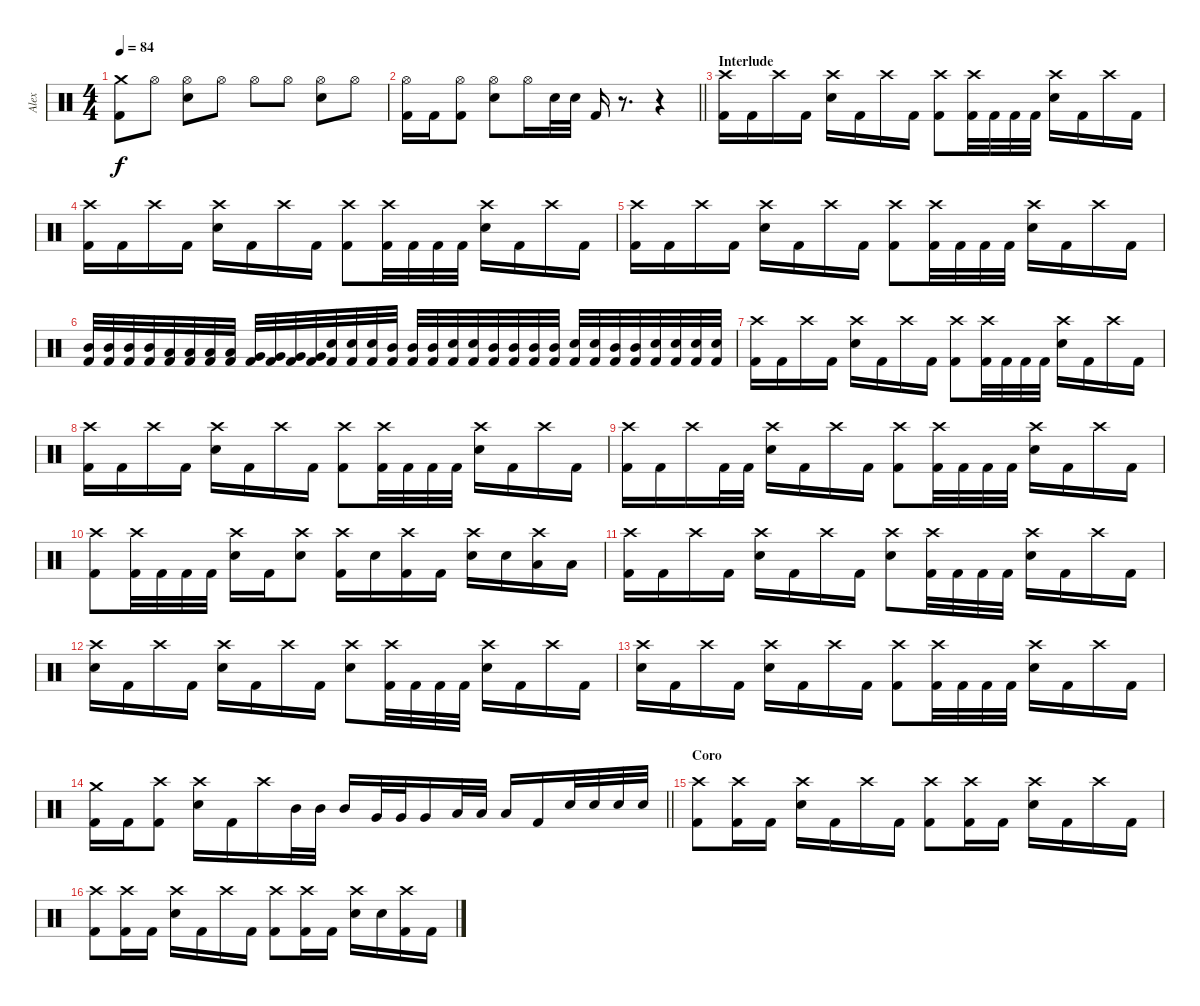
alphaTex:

\track ("Alex" "Alex") {instrument percussion}
\staff {score}
\articulation defaults
\ts (4 4)
\tempo 84
\clef neutral
\ks c
("Crash medium (hit)" "Kick (hit) 2").8{dy f} "Hi-Hat (open)".8 ("Hi-Hat (open)" "Electric Snare (hit)").8 "Hi-Hat (open)".8 "Hi-Hat (open)".8 "Hi-Hat (open)".8 ("Hi-Hat (open)" "Electric Snare (hit)").8 "Hi-Hat (open)".8 |
\barLineRight lightlight
("Hi-Hat (open)" "Kick (hit) 2").16 "Kick (hit) 2".16 ("Hi-Hat (open)" "Kick (hit) 2").8 ("Hi-Hat (open)" "Electric Snare (hit)").8 "Hi-Hat (open)".16 "Electric Snare (hit)".32 "Electric Snare (hit)".32 "Kick (hit) 2".16 r.8{d} r.4 |
\section ("" "Interlude")
("Crash high (hit)" "Kick (hit) 2").16 "Kick (hit) 2".16 "Crash high (hit)".16 "Kick (hit) 2".16 ("Crash high (hit)" "Electric Snare (hit)").16 "Kick (hit) 2".16 "Crash high (hit)".16 "Kick (hit) 2".16 ("Crash high (hit)" "Kick (hit) 2").8 ("Crash high (hit)" "Kick (hit) 2").32 "Kick (hit) 2".32 "Kick (hit) 2".32 "Kick (hit) 2".32 ("Crash high (hit)" "Electric Snare (hit)").16 "Kick (hit) 2".16 "Crash high (hit)".16 "Kick (hit) 2".16 |
("Crash high (hit)" "Kick (hit) 2").16 "Kick (hit) 2".16 "Crash high (hit)".16 "Kick (hit) 2".16 ("Crash high (hit)" "Electric Snare (hit)").16 "Kick (hit) 2".16 "Crash high (hit)".16 "Kick (hit) 2".16 ("Crash high (hit)" "Kick (hit) 2").8 ("Crash high (hit)" "Kick (hit) 2").32 "Kick (hit) 2".32 "Kick (hit) 2".32 "Kick (hit) 2".32 ("Crash high (hit)" "Electric Snare (hit)").16 "Kick (hit) 2".16 "Crash high (hit)".16 "Kick (hit) 2".16 |
("Crash high (hit)" "Kick (hit) 2").16 "Kick (hit) 2".16 "Crash high (hit)".16 "Kick (hit) 2".16 ("Crash high (hit)" "Electric Snare (hit)").16 "Kick (hit) 2".16 "Crash high (hit)".16 "Kick (hit) 2".16 ("Crash high (hit)" "Kick (hit) 2").8 ("Crash high (hit)" "Kick (hit) 2").32 "Kick (hit) 2".32 "Kick (hit) 2".32 "Kick (hit) 2".32 ("Crash high (hit)" "Electric Snare (hit)").16 "Kick (hit) 2".16 "Crash high (hit)".16 "Kick (hit) 2".16 |
("Mid Tom (hit)" "Kick (hit) 2").32 ("Mid Tom (hit)" "Kick (hit) 2").32 ("Mid Tom (hit)" "Kick (hit) 2").32 ("Mid Tom (hit)" "Kick (hit) 2").32 ("Low Tom (hit)" "Kick (hit) 2").32 ("Low Tom (hit)" "Kick (hit) 2").32 ("Low Tom (hit)" "Kick (hit) 2").32 ("Low Tom (hit)" "Kick (hit) 2").32 ("Very Low Tom (hit)" "Kick (hit) 2").32 ("Very Low Tom (hit)" "Kick (hit) 2").32 ("Very Low Tom (hit)" "Kick (hit) 2").32 ("Very Low Tom (hit)" "Kick (hit) 2").32 ("Electric Snare (hit)" "Kick (hit) 2").32 ("Electric Snare (hit)" "Kick (hit) 2").32 ("Electric Snare (hit)" "Kick (hit) 2").32 ("Mid Tom (hit)" "Kick (hit) 2").32 ("Mid Tom (hit)" "Kick (hit) 2").32 ("Mid Tom (hit)" "Kick (hit) 2").32 ("Electric Snare (hit)" "Kick (hit) 2").32 ("Electric Snare (hit)" "Kick (hit) 2").32 ("Mid Tom (hit)" "Kick (hit) 2").32 ("Mid Tom (hit)" "Kick (hit) 2").32 ("Mid Tom (hit)" "Kick (hit) 2").32 ("Mid Tom (hit)" "Kick (hit) 2").32 ("Electric Snare (hit)" "Kick (hit) 2").32 ("Electric Snare (hit)" "Kick (hit) 2").32 ("Mid Tom (hit)" "Kick (hit) 2").32 ("Mid Tom (hit)" "Kick (hit) 2").32 ("Electric Snare (hit)" "Kick (hit) 2").32 ("Electric Snare (hit)" "Kick (hit) 2").32 ("Electric Snare (hit)" "Kick (hit) 2").32 ("Electric Snare (hit)" "Kick (hit) 2").32 |
("Crash high (hit)" "Kick (hit) 2").16 "Kick (hit) 2".16 "Crash high (hit)".16 "Kick (hit) 2".16 ("Crash high (hit)" "Electric Snare (hit)").16 "Kick (hit) 2".16 "Crash high (hit)".16 "Kick (hit) 2".16 ("Crash high (hit)" "Kick (hit) 2").8 ("Crash high (hit)" "Kick (hit) 2").32 "Kick (hit) 2".32 "Kick (hit) 2".32 "Kick (hit) 2".32 ("Crash high (hit)" "Electric Snare (hit)").16 "Kick (hit) 2".16 "Crash high (hit)".16 "Kick (hit) 2".16 |
("Crash high (hit)" "Kick (hit) 2").16 "Kick (hit) 2".16 "Crash high (hit)".16 "Kick (hit) 2".16 ("Crash high (hit)" "Electric Snare (hit)").16 "Kick (hit) 2".16 "Crash high (hit)".16 "Kick (hit) 2".16 ("Crash high (hit)" "Kick (hit) 2").8 ("Crash high (hit)" "Kick (hit) 2").32 "Kick (hit) 2".32 "Kick (hit) 2".32 "Kick (hit) 2".32 ("Crash high (hit)" "Electric Snare (hit)").16 "Kick (hit) 2".16 "Crash high (hit)".16 "Kick (hit) 2".16 |
("Crash high (hit)" "Kick (hit) 2").16 "Kick (hit) 2".16 "Crash high (hit)".16 "Kick (hit) 2".32 "Kick (hit) 2".32 ("Crash high (hit)" "Electric Snare (hit)").16 "Kick (hit) 2".16 "Crash high (hit)".16 "Kick (hit) 2".16 ("Crash high (hit)" "Kick (hit) 2").8 ("Crash high (hit)" "Kick (hit) 2").32 "Kick (hit) 2".32 "Kick (hit) 2".32 "Kick (hit) 2".32 ("Crash high (hit)" "Electric Snare (hit)").16 "Kick (hit) 2".16 "Crash high (hit)".16 "Kick (hit) 2".16 |
("Crash high (hit)" "Kick (hit) 2").8 ("Crash high (hit)" "Kick (hit) 2").32 "Kick (hit) 2".32 "Kick (hit) 2".32 "Kick (hit) 2".32 ("Crash high (hit)" "Electric Snare (hit)").16 "Kick (hit) 2".16 ("Crash high (hit)" "Electric Snare (hit)").8 ("Crash high (hit)" "Kick (hit) 2").16 "Electric Snare (hit)".16 ("Crash high (hit)" "Kick (hit) 2").16 "Kick (hit) 2".16 ("Crash high (hit)" "Electric Snare (hit)").16 "Electric Snare (hit)".16 ("Crash high (hit)" "Low Tom (hit)").16 "Low Tom (hit)".16 |
("Crash high (hit)" "Kick (hit) 2").16 "Kick (hit) 2".16 "Crash high (hit)".16 "Kick (hit) 2".16 ("Crash high (hit)" "Electric Snare (hit)").16 "Kick (hit) 2".16 "Crash high (hit)".16 "Kick (hit) 2".16 ("Crash high (hit)" "Electric Snare (hit)").8 ("Crash high (hit)" "Kick (hit) 2").32 "Kick (hit) 2".32 "Kick (hit) 2".32 "Kick (hit) 2".32 ("Crash high (hit)" "Electric Snare (hit)").16 "Kick (hit) 2".16 "Crash high (hit)".16 "Kick (hit) 2".16 |
("Crash high (hit)" "Electric Snare (hit)").16 "Kick (hit) 2".16 "Crash high (hit)".16 "Kick (hit) 2".16 ("Crash high (hit)" "Electric Snare (hit)").16 "Kick (hit) 2".16 "Crash high (hit)".16 "Kick (hit) 2".16 ("Crash high (hit)" "Electric Snare (hit)").8 ("Crash high (hit)" "Kick (hit) 2").32 "Kick (hit) 2".32 "Kick (hit) 2".32 "Kick (hit) 2".32 ("Crash high (hit)" "Electric Snare (hit)").16 "Kick (hit) 2".16 "Crash high (hit)".16 "Kick (hit) 2".16 |
("Crash high (hit)" "Electric Snare (hit)").16 "Kick (hit) 2".16 "Crash high (hit)".16 "Kick (hit) 2".16 ("Crash high (hit)" "Electric Snare (hit)").16 "Kick (hit) 2".16 "Crash high (hit)".16 "Kick (hit) 2".16 ("Crash high (hit)" "Kick (hit) 2").8 ("Crash high (hit)" "Kick (hit) 2").32 "Kick (hit) 2".32 "Kick (hit) 2".32 "Kick (hit) 2".32 ("Crash high (hit)" "Electric Snare (hit)").16 "Kick (hit) 2".16 "Crash high (hit)".16 "Kick (hit) 2".16 |
\barLineRight lightlight
("Crash medium (hit)" "Kick (hit) 2").16 "Kick (hit) 2".16 ("Crash high (hit)" "Kick (hit) 2").8 ("Crash high (hit)" "Electric Snare (hit)").16 "Kick (hit) 2".16 "Crash high (hit)".16 "Mid Tom (hit)".32 "Mid Tom (hit)".32 "Mid Tom (hit)".16 "Very Low Tom (hit)".32 "Very Low Tom (hit)".32 "Very Low Tom (hit)".16 "Low Floor Tom (hit)".32 "Low Floor Tom (hit)".32 "Low Floor Tom (hit)".16 "Kick (hit) 2".16 "Electric Snare (hit)".32 "Electric Snare (hit)".32 "Electric Snare (hit)".32 "Electric Snare (hit)".32 |
\section ("" "Coro")
("Crash high (hit)" "Kick (hit) 2").8 ("Crash high (hit)" "Kick (hit) 2").16 "Kick (hit) 2".16 ("Crash high (hit)" "Electric Snare (hit)").16 "Kick (hit) 2".16 "Crash high (hit)".16 "Kick (hit) 2".16 ("Crash high (hit)" "Kick (hit) 2").8 ("Crash high (hit)" "Kick (hit) 2").16 "Kick (hit) 2".16 ("Crash high (hit)" "Electric Snare (hit)").16 "Kick (hit) 2".16 "Crash high (hit)".16 "Kick (hit) 2".16 |
("Crash high (hit)" "Kick (hit) 2").8 ("Crash high (hit)" "Kick (hit) 2").16 "Kick (hit) 2".16 ("Crash high (hit)" "Electric Snare (hit)").16 "Kick (hit) 2".16 "Crash high (hit)".16 "Kick (hit) 2".16 ("Crash high (hit)" "Kick (hit) 2").8 ("Crash high (hit)" "Kick (hit) 2").16 "Kick (hit) 2".16 ("Crash high (hit)" "Electric Snare (hit)").16 "Electric Snare (hit)".16 ("Crash high (hit)" "Kick (hit) 2").16 "Kick (hit) 2".16
